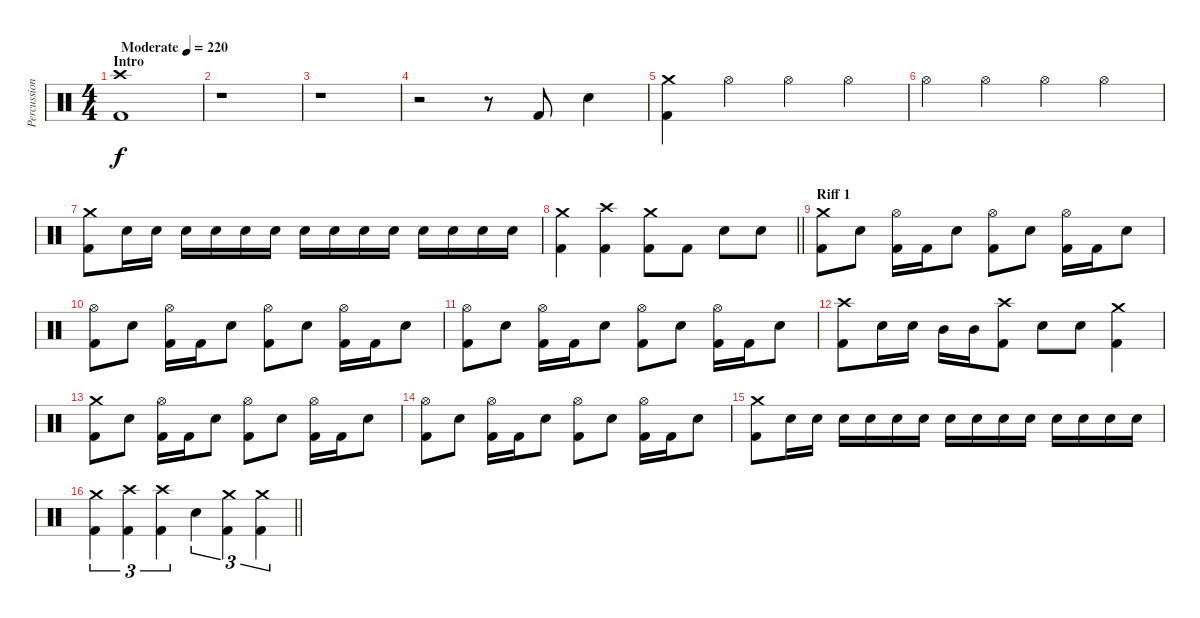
\track ("Percussion" "Percussion") {instrument percussion}
\staff {score}
\articulation defaults
\ts (4 4)
\section ("" "Intro")
\tempo (220 "Moderate")
\clef neutral
\ks c
("Crash high (hit)" "Kick (hit) 2").1{dy f} |
r.1 |
r.1 |
r.2 r.8 "Kick (hit) 2".8 "Electric Snare (hit)".4 |
("Crash medium (hit)" "Kick (hit) 2").4 "Hi-Hat (open)".4 "Hi-Hat (open)".4 "Hi-Hat (open)".4 |
"Hi-Hat (open)".4 "Hi-Hat (open)".4 "Hi-Hat (open)".4 "Hi-Hat (open)".4 |
("Crash medium (hit)" "Kick (hit) 2").8 "Electric Snare (hit)".16 "Electric Snare (hit)".16 "Electric Snare (hit)".16 "Electric Snare (hit)".16 "Electric Snare (hit)".16 "Electric Snare (hit)".16 "Electric Snare (hit)".16 "Electric Snare (hit)".16 "Electric Snare (hit)".16 "Electric Snare (hit)".16 "Electric Snare (hit)".16 "Electric Snare (hit)".16 "Electric Snare (hit)".16 "Electric Snare (hit)".16 |
\barLineRight lightlight
("Crash medium (hit)" "Kick (hit) 2").4 ("Crash high (hit)" "Kick (hit) 2").4 ("Crash medium (hit)" "Kick (hit) 2").8 "Kick (hit) 2".8 "Electric Snare (hit)".8 "Electric Snare (hit)".8 |
\section ("" "Riff 1")
("Crash medium (hit)" "Kick (hit) 2").8 "Electric Snare (hit)".8 ("Hi-Hat (open)" "Kick (hit) 2").16 "Kick (hit) 2".16 "Electric Snare (hit)".8 ("Hi-Hat (open)" "Kick (hit) 2").8 "Electric Snare (hit)".8 ("Hi-Hat (open)" "Kick (hit) 2").16 "Kick (hit) 2".16 "Electric Snare (hit)".8 |
("Hi-Hat (open)" "Kick (hit) 2").8 "Electric Snare (hit)".8 ("Hi-Hat (open)" "Kick (hit) 2").16 "Kick (hit) 2".16 "Electric Snare (hit)".8 ("Hi-Hat (open)" "Kick (hit) 2").8 "Electric Snare (hit)".8 ("Hi-Hat (open)" "Kick (hit) 2").16 "Kick (hit) 2".16 "Electric Snare (hit)".8 |
("Hi-Hat (open)" "Kick (hit) 2").8 "Electric Snare (hit)".8 ("Hi-Hat (open)" "Kick (hit) 2").16 "Kick (hit) 2".16 "Electric Snare (hit)".8 ("Hi-Hat (open)" "Kick (hit) 2").8 "Electric Snare (hit)".8 ("Hi-Hat (open)" "Kick (hit) 2").16 "Kick (hit) 2".16 "Electric Snare (hit)".8 |
("Crash high (hit)" "Kick (hit) 2").8 "Electric Snare (hit)".16 "Electric Snare (hit)".16 "Mid Tom (hit)".16 "Mid Tom (hit)".16 ("Crash high (hit)" "Kick (hit) 2").8 "Electric Snare (hit)".8 "Electric Snare (hit)".8 ("Crash medium (hit)" "Kick (hit) 2").4 |
("Crash medium (hit)" "Kick (hit) 2").8 "Electric Snare (hit)".8 ("Hi-Hat (open)" "Kick (hit) 2").16 "Kick (hit) 2".16 "Electric Snare (hit)".8 ("Hi-Hat (open)" "Kick (hit) 2").8 "Electric Snare (hit)".8 ("Hi-Hat (open)" "Kick (hit) 2").16 "Kick (hit) 2".16 "Electric Snare (hit)".8 |
("Hi-Hat (open)" "Kick (hit) 2").8 "Electric Snare (hit)".8 ("Hi-Hat (open)" "Kick (hit) 2").16 "Kick (hit) 2".16 "Electric Snare (hit)".8 ("Hi-Hat (open)" "Kick (hit) 2").8 "Electric Snare (hit)".8 ("Hi-Hat (open)" "Kick (hit) 2").16 "Kick (hit) 2".16 "Electric Snare (hit)".8 |
("Crash medium (hit)" "Kick (hit) 2").8 "Electric Snare (hit)".16 "Electric Snare (hit)".16 "Electric Snare (hit)".16 "Electric Snare (hit)".16 "Electric Snare (hit)".16 "Electric Snare (hit)".16 "Electric Snare (hit)".16 "Electric Snare (hit)".16 "Electric Snare (hit)".16 "Electric Snare (hit)".16 "Electric Snare (hit)".16 "Electric Snare (hit)".16 "Electric Snare (hit)".16 "Electric Snare (hit)".16 |
\barLineRight lightlight
("Crash medium (hit)" "Kick (hit) 2").4{tu (3 2)} ("Crash high (hit)" "Kick (hit) 2").4{tu (3 2)} ("Crash high (hit)" "Kick (hit) 2").4{tu (3 2)} "Electric Snare (hit)".4{tu (3 2)} ("Crash medium (hit)" "Kick (hit) 2").4{tu (3 2)} ("Crash medium (hit)" "Kick (hit) 2").4{tu (3 2)}
